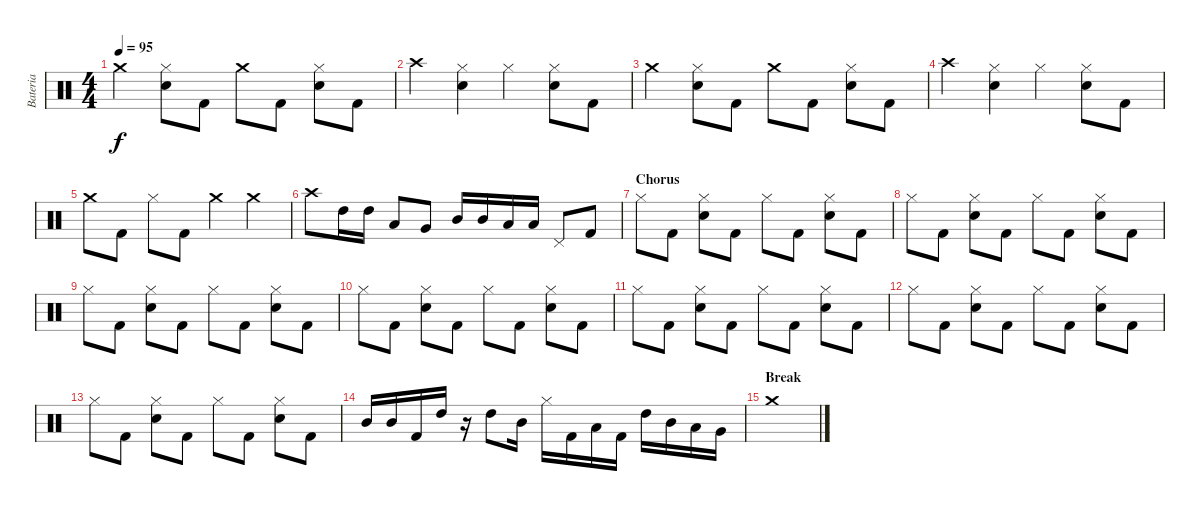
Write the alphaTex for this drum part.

\track ("Bateria" "Bateria") {instrument percussion}
\staff {score}
\articulation defaults
\ts (4 4)
\tempo 95
\clef neutral
\ks c "Crash medium (hit)".4{dy f}
("Hi-Hat (closed)" "Snare (hit) 2").8 "Kick (hit) 2".8 "Crash medium (hit)".8 "Kick (hit) 2".8 ("Hi-Hat (closed)" "Snare (hit) 2").8 "Kick (hit) 2".8 |
"Crash high (hit)".4 ("Hi-Hat (closed)" "Snare (hit) 2").4 "Hi-Hat (closed)".4 ("Hi-Hat (closed)" "Snare (hit) 2").8 "Kick (hit) 2".8 |
"Crash medium (hit)".4 ("Hi-Hat (closed)" "Snare (hit) 2").8 "Kick (hit) 2".8 "Crash medium (hit)".8 "Kick (hit) 2".8 ("Hi-Hat (closed)" "Snare (hit) 2").8 "Kick (hit) 2".8 |
"Crash high (hit)".4 ("Hi-Hat (closed)" "Snare (hit) 2").4 "Hi-Hat (closed)".4 ("Hi-Hat (closed)" "Snare (hit) 2").8 "Kick (hit) 2".8 |
"Crash medium (hit)".8 "Kick (hit) 2".8 "Hi-Hat (closed)".8 "Kick (hit) 2".8 "Crash medium (hit)".4 "Crash medium (hit)".4 |
"Crash high (hit)".8 "High Tom (hit)".16 "High Tom (hit)".16 "Low Tom (hit)".8 "Very Low Tom (hit)".8 "Mid Tom (hit)".16 "Mid Tom (hit)".16 "Low Tom (hit)".16 "Low Tom (hit)".16 "Pedal Hi-Hat (hit)".8 "Kick (hit) 2".8 |
\section ("" "Chorus")
"Hi-Hat (closed)".8 "Kick (hit) 2".8 ("Hi-Hat (closed)" "Electric Snare (hit)").8 "Kick (hit) 2".8 "Hi-Hat (closed)".8 "Kick (hit) 2".8 ("Hi-Hat (closed)" "Electric Snare (hit)").8 "Kick (hit) 2".8 |
"Hi-Hat (closed)".8 "Kick (hit) 2".8 ("Hi-Hat (closed)" "Electric Snare (hit)").8 "Kick (hit) 2".8 "Hi-Hat (closed)".8 "Kick (hit) 2".8 ("Hi-Hat (closed)" "Electric Snare (hit)").8 "Kick (hit) 2".8 |
"Hi-Hat (closed)".8 "Kick (hit) 2".8 ("Hi-Hat (closed)" "Electric Snare (hit)").8 "Kick (hit) 2".8 "Hi-Hat (closed)".8 "Kick (hit) 2".8 ("Hi-Hat (closed)" "Electric Snare (hit)").8 "Kick (hit) 2".8 |
"Hi-Hat (closed)".8 "Kick (hit) 2".8 ("Hi-Hat (closed)" "Electric Snare (hit)").8 "Kick (hit) 2".8 "Hi-Hat (closed)".8 "Kick (hit) 2".8 ("Hi-Hat (closed)" "Electric Snare (hit)").8 "Kick (hit) 2".8 |
"Hi-Hat (closed)".8 "Kick (hit) 2".8 ("Hi-Hat (closed)" "Electric Snare (hit)").8 "Kick (hit) 2".8 "Hi-Hat (closed)".8 "Kick (hit) 2".8 ("Hi-Hat (closed)" "Electric Snare (hit)").8 "Kick (hit) 2".8 |
"Hi-Hat (closed)".8 "Kick (hit) 2".8 ("Hi-Hat (closed)" "Electric Snare (hit)").8 "Kick (hit) 2".8 "Hi-Hat (closed)".8 "Kick (hit) 2".8 ("Hi-Hat (closed)" "Electric Snare (hit)").8 "Kick (hit) 2".8 |
"Hi-Hat (closed)".8 "Kick (hit) 2".8 ("Hi-Hat (closed)" "Electric Snare (hit)").8 "Kick (hit) 2".8 "Hi-Hat (closed)".8 "Kick (hit) 2".8 ("Hi-Hat (closed)" "Electric Snare (hit)").8 "Kick (hit) 2".8 |
"Mid Tom (hit)".16 "Mid Tom (hit)".16 "Kick (hit) 2".16 "High Tom (hit)".16 r.16 "High Tom (hit)".8 "Mid Tom (hit)".16 "Hi-Hat (closed)".16 "Kick (hit) 2".16 "Low Tom (hit)".16 "Kick (hit) 2".16 "High Tom (hit)".16 "Mid Tom (hit)".16 "Low Tom (hit)".16 "Very Low Tom (hit)".16 |
\section ("" "Break")
"Crash medium (hit)".1
